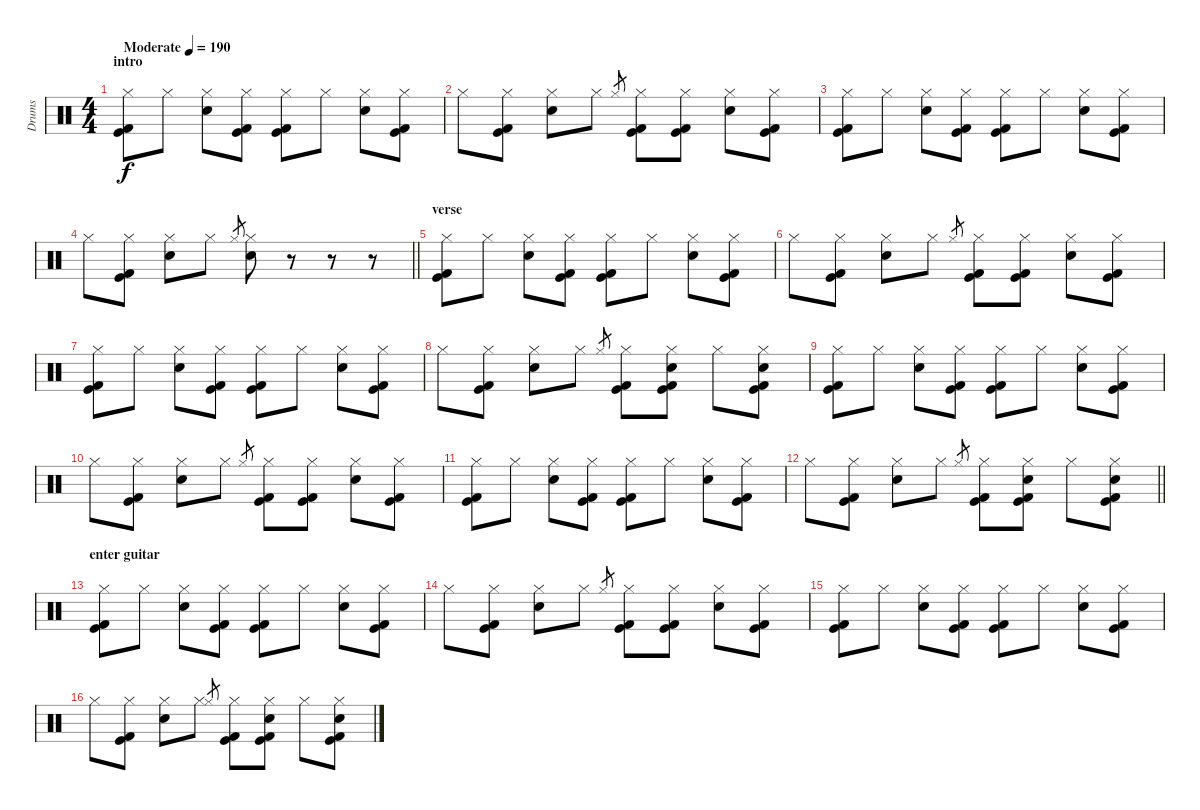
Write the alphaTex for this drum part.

\track ("Drums" "Drums") {instrument percussion}
\staff {score}
\articulation defaults
\ts (4 4)
\section ("" "intro")
\tempo (190 "Moderate")
\clef neutral
\ks c
("Hi-Hat (closed)" "Kick (hit)" "Kick (hit) 2").8{dy f} "Hi-Hat (closed)".8 ("Hi-Hat (closed)" "Snare (hit) 2").8 ("Hi-Hat (closed)" "Kick (hit)" "Kick (hit) 2").8 ("Hi-Hat (closed)" "Kick (hit)" "Kick (hit) 2").8 "Hi-Hat (closed)".8 ("Hi-Hat (closed)" "Snare (hit) 2").8 ("Hi-Hat (closed)" "Kick (hit)" "Kick (hit) 2").8 |
"Hi-Hat (closed)".8 ("Hi-Hat (closed)" "Kick (hit)" "Kick (hit) 2").8 ("Hi-Hat (closed)" "Snare (hit) 2").8 "Hi-Hat (closed)".8 "Hi-Hat (closed)".8{gr} ("Hi-Hat (closed)" "Kick (hit)" "Kick (hit) 2").8 ("Hi-Hat (closed)" "Kick (hit)" "Kick (hit) 2").8 ("Hi-Hat (closed)" "Snare (hit) 2").8 ("Hi-Hat (closed)" "Kick (hit)" "Kick (hit) 2").8 |
("Hi-Hat (closed)" "Kick (hit)" "Kick (hit) 2").8 "Hi-Hat (closed)".8 ("Hi-Hat (closed)" "Snare (hit) 2").8 ("Hi-Hat (closed)" "Kick (hit)" "Kick (hit) 2").8 ("Hi-Hat (closed)" "Kick (hit)" "Kick (hit) 2").8 "Hi-Hat (closed)".8 ("Hi-Hat (closed)" "Snare (hit) 2").8 ("Hi-Hat (closed)" "Kick (hit)" "Kick (hit) 2").8 |
\barLineRight lightlight "Hi-Hat (closed)".8
("Hi-Hat (closed)" "Kick (hit)" "Kick (hit) 2").8 ("Hi-Hat (closed)" "Snare (hit) 2").8 "Hi-Hat (closed)".8 "Hi-Hat (closed)".8{gr} ("Hi-Hat (closed)" "Snare (hit) 2").8 r.8 r.8 r.8 |
\section ("" "verse")
("Hi-Hat (closed)" "Kick (hit)" "Kick (hit) 2").8 "Hi-Hat (closed)".8 ("Hi-Hat (closed)" "Snare (hit) 2").8 ("Hi-Hat (closed)" "Kick (hit)" "Kick (hit) 2").8 ("Hi-Hat (closed)" "Kick (hit)" "Kick (hit) 2").8 "Hi-Hat (closed)".8 ("Hi-Hat (closed)" "Snare (hit) 2").8 ("Hi-Hat (closed)" "Kick (hit)" "Kick (hit) 2").8 |
"Hi-Hat (closed)".8 ("Hi-Hat (closed)" "Kick (hit)" "Kick (hit) 2").8 ("Hi-Hat (closed)" "Snare (hit) 2").8 "Hi-Hat (closed)".8 "Hi-Hat (closed)".8{gr} ("Hi-Hat (closed)" "Kick (hit)" "Kick (hit) 2").8 ("Hi-Hat (closed)" "Kick (hit)" "Kick (hit) 2").8 ("Hi-Hat (closed)" "Snare (hit) 2").8 ("Hi-Hat (closed)" "Kick (hit)" "Kick (hit) 2").8 |
("Hi-Hat (closed)" "Kick (hit)" "Kick (hit) 2").8 "Hi-Hat (closed)".8 ("Hi-Hat (closed)" "Snare (hit) 2").8 ("Hi-Hat (closed)" "Kick (hit)" "Kick (hit) 2").8 ("Hi-Hat (closed)" "Kick (hit)" "Kick (hit) 2").8 "Hi-Hat (closed)".8 ("Hi-Hat (closed)" "Snare (hit) 2").8 ("Hi-Hat (closed)" "Kick (hit)" "Kick (hit) 2").8 |
"Hi-Hat (closed)".8 ("Hi-Hat (closed)" "Kick (hit)" "Kick (hit) 2").8 ("Hi-Hat (closed)" "Snare (hit) 2").8 "Hi-Hat (closed)".8 "Hi-Hat (closed)".8{gr} ("Hi-Hat (closed)" "Kick (hit)" "Kick (hit) 2").8 ("Hi-Hat (closed)" "Kick (hit)" "Snare (hit) 2" "Kick (hit) 2").8 "Hi-Hat (closed)".8 ("Hi-Hat (closed)" "Snare (hit) 2" "Kick (hit)" "Kick (hit) 2").8 |
("Hi-Hat (closed)" "Kick (hit)" "Kick (hit) 2").8 "Hi-Hat (closed)".8 ("Hi-Hat (closed)" "Snare (hit) 2").8 ("Hi-Hat (closed)" "Kick (hit)" "Kick (hit) 2").8 ("Hi-Hat (closed)" "Kick (hit)" "Kick (hit) 2").8 "Hi-Hat (closed)".8 ("Hi-Hat (closed)" "Snare (hit) 2").8 ("Hi-Hat (closed)" "Kick (hit)" "Kick (hit) 2").8 |
"Hi-Hat (closed)".8 ("Hi-Hat (closed)" "Kick (hit)" "Kick (hit) 2").8 ("Hi-Hat (closed)" "Snare (hit) 2").8 "Hi-Hat (closed)".8 "Hi-Hat (closed)".8{gr} ("Hi-Hat (closed)" "Kick (hit)" "Kick (hit) 2").8 ("Hi-Hat (closed)" "Kick (hit)" "Kick (hit) 2").8 ("Hi-Hat (closed)" "Snare (hit) 2").8 ("Hi-Hat (closed)" "Kick (hit)" "Kick (hit) 2").8 |
("Hi-Hat (closed)" "Kick (hit)" "Kick (hit) 2").8 "Hi-Hat (closed)".8 ("Hi-Hat (closed)" "Snare (hit) 2").8 ("Hi-Hat (closed)" "Kick (hit)" "Kick (hit) 2").8 ("Hi-Hat (closed)" "Kick (hit)" "Kick (hit) 2").8 "Hi-Hat (closed)".8 ("Hi-Hat (closed)" "Snare (hit) 2").8 ("Hi-Hat (closed)" "Kick (hit)" "Kick (hit) 2").8 |
\barLineRight lightlight "Hi-Hat (closed)".8
("Hi-Hat (closed)" "Kick (hit)" "Kick (hit) 2").8 ("Hi-Hat (closed)" "Snare (hit) 2").8 "Hi-Hat (closed)".8 "Hi-Hat (closed)".8{gr} ("Hi-Hat (closed)" "Kick (hit)" "Kick (hit) 2").8 ("Hi-Hat (closed)" "Kick (hit)" "Snare (hit) 2" "Kick (hit) 2").8 "Hi-Hat (closed)".8 ("Hi-Hat (closed)" "Snare (hit) 2" "Kick (hit)" "Kick (hit) 2").8 |
\section ("" "enter guitar")
("Hi-Hat (closed)" "Kick (hit)" "Kick (hit) 2").8 "Hi-Hat (closed)".8 ("Hi-Hat (closed)" "Snare (hit) 2").8 ("Hi-Hat (closed)" "Kick (hit)" "Kick (hit) 2").8 ("Hi-Hat (closed)" "Kick (hit)" "Kick (hit) 2").8 "Hi-Hat (closed)".8 ("Hi-Hat (closed)" "Snare (hit) 2").8 ("Hi-Hat (closed)" "Kick (hit)" "Kick (hit) 2").8 |
"Hi-Hat (closed)".8 ("Hi-Hat (closed)" "Kick (hit)" "Kick (hit) 2").8 ("Hi-Hat (closed)" "Snare (hit) 2").8 "Hi-Hat (closed)".8 "Hi-Hat (closed)".8{gr} ("Hi-Hat (closed)" "Kick (hit)" "Kick (hit) 2").8 ("Hi-Hat (closed)" "Kick (hit)" "Kick (hit) 2").8 ("Hi-Hat (closed)" "Snare (hit) 2").8 ("Hi-Hat (closed)" "Kick (hit)" "Kick (hit) 2").8 |
("Hi-Hat (closed)" "Kick (hit)" "Kick (hit) 2").8 "Hi-Hat (closed)".8 ("Hi-Hat (closed)" "Snare (hit) 2").8 ("Hi-Hat (closed)" "Kick (hit)" "Kick (hit) 2").8 ("Hi-Hat (closed)" "Kick (hit)" "Kick (hit) 2").8 "Hi-Hat (closed)".8 ("Hi-Hat (closed)" "Snare (hit) 2").8 ("Hi-Hat (closed)" "Kick (hit)" "Kick (hit) 2").8 |
"Hi-Hat (closed)".8 ("Hi-Hat (closed)" "Kick (hit)" "Kick (hit) 2").8 ("Hi-Hat (closed)" "Snare (hit) 2").8 "Hi-Hat (closed)".8 "Hi-Hat (closed)".8{gr} ("Hi-Hat (closed)" "Kick (hit)" "Kick (hit) 2").8 ("Hi-Hat (closed)" "Kick (hit)" "Snare (hit) 2" "Kick (hit) 2").8 "Hi-Hat (closed)".8 ("Hi-Hat (closed)" "Snare (hit) 2" "Kick (hit)" "Kick (hit) 2").8
